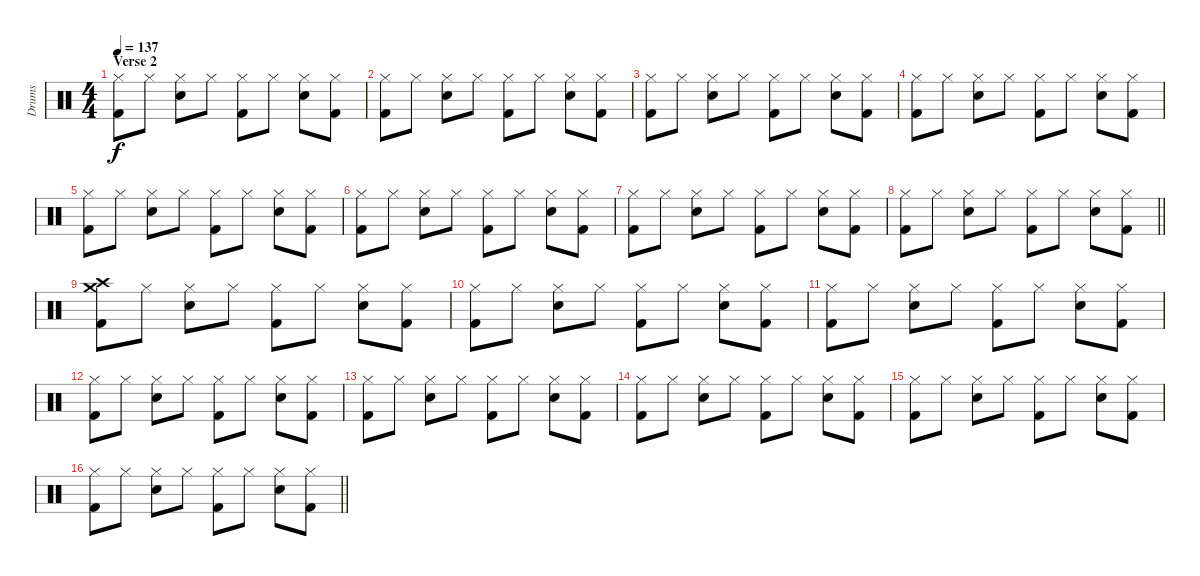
\track ("Drums" "Drums") {instrument percussion}
\staff {score}
\articulation defaults
\ts (4 4)
\section ("" "Verse 2")
\tempo 137
\clef neutral
\ks c
("Hi-Hat (closed)" "Kick (hit) 2").8{dy f} "Hi-Hat (closed)".8 ("Hi-Hat (closed)" "Electric Snare (hit)").8 "Hi-Hat (closed)".8 ("Hi-Hat (closed)" "Kick (hit) 2").8 "Hi-Hat (closed)".8 ("Hi-Hat (closed)" "Electric Snare (hit)").8 ("Hi-Hat (closed)" "Kick (hit) 2").8 |
("Hi-Hat (closed)" "Kick (hit) 2").8 "Hi-Hat (closed)".8 ("Hi-Hat (closed)" "Electric Snare (hit)").8 "Hi-Hat (closed)".8 ("Hi-Hat (closed)" "Kick (hit) 2").8 "Hi-Hat (closed)".8 ("Hi-Hat (closed)" "Electric Snare (hit)").8 ("Hi-Hat (closed)" "Kick (hit) 2").8 |
("Hi-Hat (closed)" "Kick (hit) 2").8 "Hi-Hat (closed)".8 ("Hi-Hat (closed)" "Electric Snare (hit)").8 "Hi-Hat (closed)".8 ("Hi-Hat (closed)" "Kick (hit) 2").8 "Hi-Hat (closed)".8 ("Hi-Hat (closed)" "Electric Snare (hit)").8 ("Hi-Hat (closed)" "Kick (hit) 2").8 |
("Hi-Hat (closed)" "Kick (hit) 2").8 "Hi-Hat (closed)".8 ("Hi-Hat (closed)" "Electric Snare (hit)").8 "Hi-Hat (closed)".8 ("Hi-Hat (closed)" "Kick (hit) 2").8 "Hi-Hat (closed)".8 ("Hi-Hat (closed)" "Electric Snare (hit)").8 ("Hi-Hat (closed)" "Kick (hit) 2").8 |
("Hi-Hat (closed)" "Kick (hit) 2").8 "Hi-Hat (closed)".8 ("Hi-Hat (closed)" "Electric Snare (hit)").8 "Hi-Hat (closed)".8 ("Hi-Hat (closed)" "Kick (hit) 2").8 "Hi-Hat (closed)".8 ("Hi-Hat (closed)" "Electric Snare (hit)").8 ("Hi-Hat (closed)" "Kick (hit) 2").8 |
("Hi-Hat (closed)" "Kick (hit) 2").8 "Hi-Hat (closed)".8 ("Hi-Hat (closed)" "Electric Snare (hit)").8 "Hi-Hat (closed)".8 ("Hi-Hat (closed)" "Kick (hit) 2").8 "Hi-Hat (closed)".8 ("Hi-Hat (closed)" "Electric Snare (hit)").8 ("Hi-Hat (closed)" "Kick (hit) 2").8 |
("Hi-Hat (closed)" "Kick (hit) 2").8 "Hi-Hat (closed)".8 ("Hi-Hat (closed)" "Electric Snare (hit)").8 "Hi-Hat (closed)".8 ("Hi-Hat (closed)" "Kick (hit) 2").8 "Hi-Hat (closed)".8 ("Hi-Hat (closed)" "Electric Snare (hit)").8 ("Hi-Hat (closed)" "Kick (hit) 2").8 |
\barLineRight lightlight
("Hi-Hat (closed)" "Kick (hit) 2").8 "Hi-Hat (closed)".8 ("Hi-Hat (closed)" "Electric Snare (hit)").8 "Hi-Hat (closed)".8 ("Hi-Hat (closed)" "Kick (hit) 2").8 "Hi-Hat (closed)".8 ("Hi-Hat (closed)" "Electric Snare (hit)").8 ("Hi-Hat (closed)" "Kick (hit) 2").8 |
("Crash high (hit)" "Kick (hit) 2" "Crash medium (hit)").8 "Hi-Hat (closed)".8 ("Hi-Hat (closed)" "Electric Snare (hit)").8 "Hi-Hat (closed)".8 ("Hi-Hat (closed)" "Kick (hit) 2").8 "Hi-Hat (closed)".8 ("Hi-Hat (closed)" "Electric Snare (hit)").8 ("Hi-Hat (closed)" "Kick (hit) 2").8 |
("Hi-Hat (closed)" "Kick (hit) 2").8 "Hi-Hat (closed)".8 ("Hi-Hat (closed)" "Electric Snare (hit)").8 "Hi-Hat (closed)".8 ("Hi-Hat (closed)" "Kick (hit) 2").8 "Hi-Hat (closed)".8 ("Hi-Hat (closed)" "Electric Snare (hit)").8 ("Hi-Hat (closed)" "Kick (hit) 2").8 |
("Hi-Hat (closed)" "Kick (hit) 2").8 "Hi-Hat (closed)".8 ("Hi-Hat (closed)" "Electric Snare (hit)").8 "Hi-Hat (closed)".8 ("Hi-Hat (closed)" "Kick (hit) 2").8 "Hi-Hat (closed)".8 ("Hi-Hat (closed)" "Electric Snare (hit)").8 ("Hi-Hat (closed)" "Kick (hit) 2").8 |
("Hi-Hat (closed)" "Kick (hit) 2").8 "Hi-Hat (closed)".8 ("Hi-Hat (closed)" "Electric Snare (hit)").8 "Hi-Hat (closed)".8 ("Hi-Hat (closed)" "Kick (hit) 2").8 "Hi-Hat (closed)".8 ("Hi-Hat (closed)" "Electric Snare (hit)").8 ("Hi-Hat (closed)" "Kick (hit) 2").8 |
("Hi-Hat (closed)" "Kick (hit) 2").8 "Hi-Hat (closed)".8 ("Hi-Hat (closed)" "Electric Snare (hit)").8 "Hi-Hat (closed)".8 ("Hi-Hat (closed)" "Kick (hit) 2").8 "Hi-Hat (closed)".8 ("Hi-Hat (closed)" "Electric Snare (hit)").8 ("Hi-Hat (closed)" "Kick (hit) 2").8 |
("Hi-Hat (closed)" "Kick (hit) 2").8 "Hi-Hat (closed)".8 ("Hi-Hat (closed)" "Electric Snare (hit)").8 "Hi-Hat (closed)".8 ("Hi-Hat (closed)" "Kick (hit) 2").8 "Hi-Hat (closed)".8 ("Hi-Hat (closed)" "Electric Snare (hit)").8 ("Hi-Hat (closed)" "Kick (hit) 2").8 |
("Hi-Hat (closed)" "Kick (hit) 2").8 "Hi-Hat (closed)".8 ("Hi-Hat (closed)" "Electric Snare (hit)").8 "Hi-Hat (closed)".8 ("Hi-Hat (closed)" "Kick (hit) 2").8 "Hi-Hat (closed)".8 ("Hi-Hat (closed)" "Electric Snare (hit)").8 ("Hi-Hat (closed)" "Kick (hit) 2").8 |
\barLineRight lightlight
("Hi-Hat (closed)" "Kick (hit) 2").8 "Hi-Hat (closed)".8 ("Hi-Hat (closed)" "Electric Snare (hit)").8 "Hi-Hat (closed)".8 ("Hi-Hat (closed)" "Kick (hit) 2").8 "Hi-Hat (closed)".8 ("Hi-Hat (closed)" "Electric Snare (hit)").8 ("Hi-Hat (closed)" "Kick (hit) 2").8
